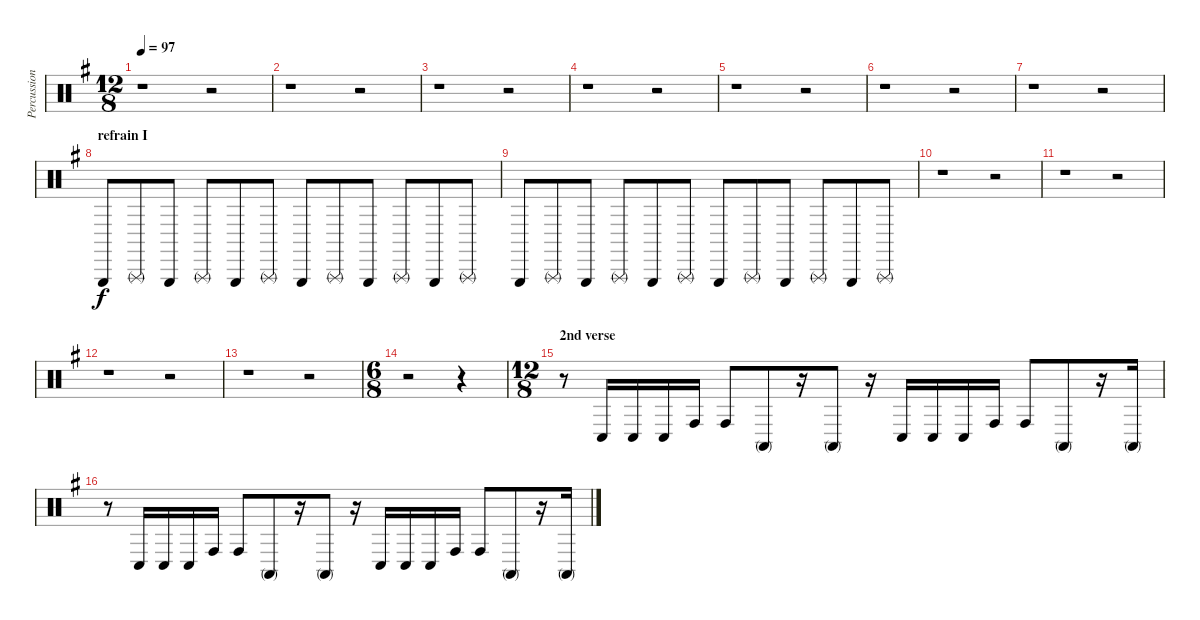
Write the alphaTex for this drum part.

\track ("Percussions" "Percussion") {instrument percussion}
\staff {score}
\articulation defaults
\ts (12 8)
\tempo 97
\clef neutral
\ks g
r.1{dy f} r.2 |
r.1 r.2 |
r.1 r.2 |
r.1 r.2 |
r.1 r.2 |
r.1 r.2 |
r.1 r.2 |
\section ("" "refrain I")
"Triangle (hit)".8 "Triangle (rnute)".8 "Triangle (hit)".8 "Triangle (rnute)".8 "Triangle (hit)".8 "Triangle (rnute)".8 "Triangle (hit)".8 "Triangle (rnute)".8 "Triangle (hit)".8 "Triangle (rnute)".8 "Triangle (hit)".8 "Triangle (rnute)".8 |
"Triangle (hit)".8 "Triangle (rnute)".8 "Triangle (hit)".8 "Triangle (rnute)".8 "Triangle (hit)".8 "Triangle (rnute)".8 "Triangle (hit)".8 "Triangle (rnute)".8 "Triangle (hit)".8 "Triangle (rnute)".8 "Triangle (hit)".8 "Triangle (rnute)".8 |
r.1 r.2 |
r.1 r.2 |
r.1 r.2 |
r.1 r.2 |
\ts (6 8)
r.2 r.4 |
\ts (12 8)
\section ("" "2nd verse")
r.8 "Conga low (hit)".16 "Conga low (hit)".16 "Conga low (hit)".16 "Conga high (hit)".16 "Conga high (hit)".8 "Conga high (mute)".8 r.16 "Conga high (mute)".8 r.16 "Conga low (hit)".16 "Conga low (hit)".16 "Conga low (hit)".16 "Conga high (hit)".16 "Conga high (hit)".8 "Conga high (mute)".8 r.16 "Conga high (mute)".16 |
r.8 "Conga low (hit)".16 "Conga low (hit)".16 "Conga low (hit)".16 "Conga high (hit)".16 "Conga high (hit)".8 "Conga high (mute)".8 r.16 "Conga high (mute)".8 r.16 "Conga low (hit)".16 "Conga low (hit)".16 "Conga low (hit)".16 "Conga high (hit)".16 "Conga high (hit)".8 "Conga high (mute)".8 r.16 "Conga high (mute)".16
